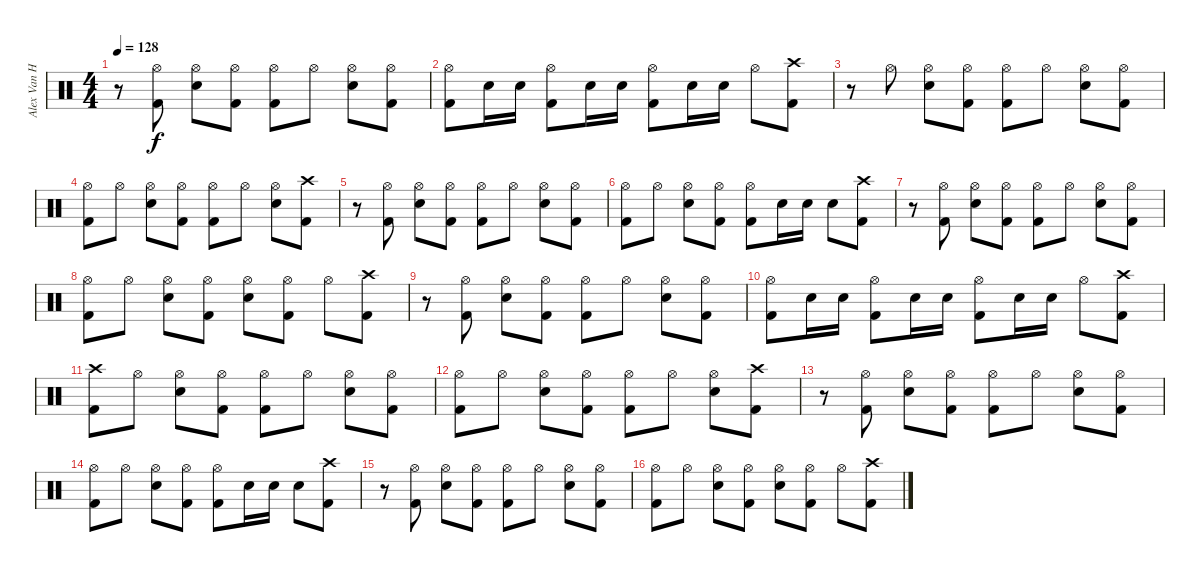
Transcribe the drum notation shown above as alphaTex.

\track ("Alex Van Halen" "Alex Van H") {instrument percussion}
\staff {score}
\articulation defaults
\ts (4 4)
\tempo 128
\clef neutral
\ks c
r.8{dy f} ("Kick (hit) 2" "Hi-Hat (open)").8 ("Snare (hit) 2" "Hi-Hat (open)").8 ("Kick (hit) 2" "Hi-Hat (open)").8 ("Kick (hit) 2" "Hi-Hat (open)").8 "Hi-Hat (open)".8 ("Snare (hit) 2" "Hi-Hat (open)").8 ("Kick (hit) 2" "Hi-Hat (open)").8 |
("Kick (hit) 2" "Hi-Hat (open)").8 "Snare (hit) 2".16 "Snare (hit) 2".16 ("Kick (hit) 2" "Hi-Hat (open)").8 "Snare (hit) 2".16 "Snare (hit) 2".16 ("Kick (hit) 2" "Hi-Hat (open)").8 "Snare (hit) 2".16 "Snare (hit) 2".16 "Hi-Hat (open)".8 ("Crash high (hit)" "Kick (hit) 2").8 |
r.8 "Hi-Hat (open)".8 ("Snare (hit) 2" "Hi-Hat (open)").8 ("Kick (hit) 2" "Hi-Hat (open)").8 ("Kick (hit) 2" "Hi-Hat (open)").8 "Hi-Hat (open)".8 ("Snare (hit) 2" "Hi-Hat (open)").8 ("Kick (hit) 2" "Hi-Hat (open)").8 |
("Kick (hit) 2" "Hi-Hat (open)").8 "Hi-Hat (open)".8 ("Snare (hit) 2" "Hi-Hat (open)").8 ("Kick (hit) 2" "Hi-Hat (open)").8 ("Kick (hit) 2" "Hi-Hat (open)").8 "Hi-Hat (open)".8 ("Snare (hit) 2" "Hi-Hat (open)").8 ("Kick (hit) 2" "Crash high (hit)").8 |
r.8 ("Kick (hit) 2" "Hi-Hat (open)").8 ("Snare (hit) 2" "Hi-Hat (open)").8 ("Kick (hit) 2" "Hi-Hat (open)").8 ("Kick (hit) 2" "Hi-Hat (open)").8 "Hi-Hat (open)".8 ("Snare (hit) 2" "Hi-Hat (open)").8 ("Kick (hit) 2" "Hi-Hat (open)").8 |
("Kick (hit) 2" "Hi-Hat (open)").8 "Hi-Hat (open)".8 ("Snare (hit) 2" "Hi-Hat (open)").8 ("Kick (hit) 2" "Hi-Hat (open)").8 ("Kick (hit) 2" "Hi-Hat (open)").8 "Snare (hit) 2".16 "Snare (hit) 2".16 "Snare (hit) 2".8 ("Kick (hit) 2" "Crash high (hit)").8 |
r.8 ("Kick (hit) 2" "Hi-Hat (open)").8 ("Snare (hit) 2" "Hi-Hat (open)").8 ("Kick (hit) 2" "Hi-Hat (open)").8 ("Kick (hit) 2" "Hi-Hat (open)").8 "Hi-Hat (open)".8 ("Snare (hit) 2" "Hi-Hat (open)").8 ("Kick (hit) 2" "Hi-Hat (open)").8 |
("Kick (hit) 2" "Hi-Hat (open)").8 "Hi-Hat (open)".8 ("Snare (hit) 2" "Hi-Hat (open)").8 ("Kick (hit) 2" "Hi-Hat (open)").8 ("Snare (hit) 2" "Hi-Hat (open)").8 ("Kick (hit) 2" "Hi-Hat (open)").8 "Hi-Hat (open)".8 ("Crash high (hit)" "Kick (hit) 2").8 |
r.8 ("Kick (hit) 2" "Hi-Hat (open)").8 ("Snare (hit) 2" "Hi-Hat (open)").8 ("Kick (hit) 2" "Hi-Hat (open)").8 ("Kick (hit) 2" "Hi-Hat (open)").8 "Hi-Hat (open)".8 ("Snare (hit) 2" "Hi-Hat (open)").8 ("Kick (hit) 2" "Hi-Hat (open)").8 |
("Kick (hit) 2" "Hi-Hat (open)").8 "Snare (hit) 2".16 "Snare (hit) 2".16 ("Kick (hit) 2" "Hi-Hat (open)").8 "Snare (hit) 2".16 "Snare (hit) 2".16 ("Kick (hit) 2" "Hi-Hat (open)").8 "Snare (hit) 2".16 "Snare (hit) 2".16 "Hi-Hat (open)".8 ("Crash high (hit)" "Kick (hit) 2").8 |
("Kick (hit) 2" "Crash high (hit)").8 "Hi-Hat (open)".8 ("Snare (hit) 2" "Hi-Hat (open)").8 ("Kick (hit) 2" "Hi-Hat (open)").8 ("Kick (hit) 2" "Hi-Hat (open)").8 "Hi-Hat (open)".8 ("Snare (hit) 2" "Hi-Hat (open)").8 ("Kick (hit) 2" "Hi-Hat (open)").8 |
("Kick (hit) 2" "Hi-Hat (open)").8 "Hi-Hat (open)".8 ("Snare (hit) 2" "Hi-Hat (open)").8 ("Kick (hit) 2" "Hi-Hat (open)").8 ("Kick (hit) 2" "Hi-Hat (open)").8 "Hi-Hat (open)".8 ("Snare (hit) 2" "Hi-Hat (open)").8 ("Kick (hit) 2" "Crash high (hit)").8 |
r.8 ("Kick (hit) 2" "Hi-Hat (open)").8 ("Snare (hit) 2" "Hi-Hat (open)").8 ("Kick (hit) 2" "Hi-Hat (open)").8 ("Kick (hit) 2" "Hi-Hat (open)").8 "Hi-Hat (open)".8 ("Snare (hit) 2" "Hi-Hat (open)").8 ("Kick (hit) 2" "Hi-Hat (open)").8 |
("Kick (hit) 2" "Hi-Hat (open)").8 "Hi-Hat (open)".8 ("Snare (hit) 2" "Hi-Hat (open)").8 ("Kick (hit) 2" "Hi-Hat (open)").8 ("Kick (hit) 2" "Hi-Hat (open)").8 "Snare (hit) 2".16 "Snare (hit) 2".16 "Snare (hit) 2".8 ("Kick (hit) 2" "Crash high (hit)").8 |
r.8 ("Kick (hit) 2" "Hi-Hat (open)").8 ("Snare (hit) 2" "Hi-Hat (open)").8 ("Kick (hit) 2" "Hi-Hat (open)").8 ("Kick (hit) 2" "Hi-Hat (open)").8 "Hi-Hat (open)".8 ("Snare (hit) 2" "Hi-Hat (open)").8 ("Kick (hit) 2" "Hi-Hat (open)").8 |
("Kick (hit) 2" "Hi-Hat (open)").8 "Hi-Hat (open)".8 ("Snare (hit) 2" "Hi-Hat (open)").8 ("Kick (hit) 2" "Hi-Hat (open)").8 ("Snare (hit) 2" "Hi-Hat (open)").8 ("Kick (hit) 2" "Hi-Hat (open)").8 "Hi-Hat (open)".8 ("Crash high (hit)" "Kick (hit) 2").8
